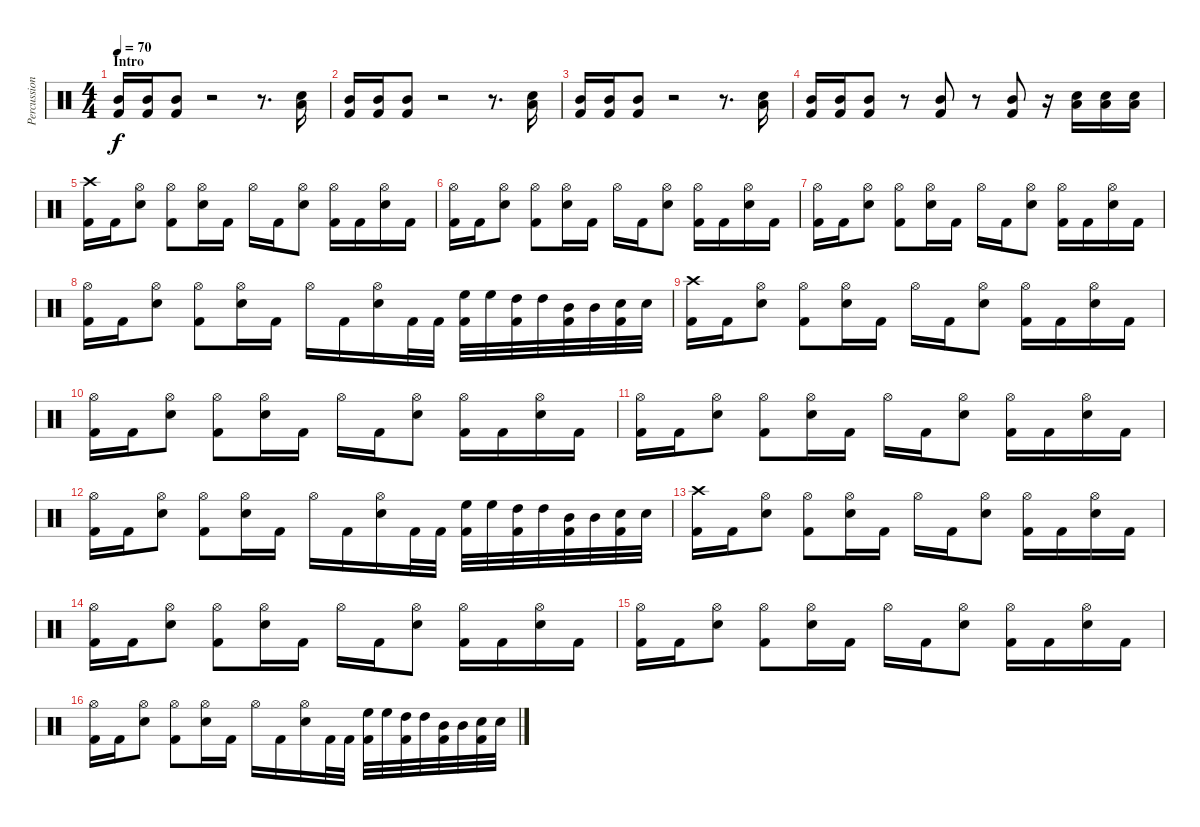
\track ("Percussion" "Percussion") {instrument percussion}
\staff {score}
\articulation defaults
\ts (4 4)
\section ("" "Intro")
\tempo 70
\clef neutral
\ks c
("Kick (hit) 2" "Mid Tom (hit)").16{dy f} ("Kick (hit) 2" "Mid Tom (hit)").16 ("Kick (hit) 2" "Mid Tom (hit)").8 r.2 r.8{d} ("Electric Snare (hit)" "Low Tom (hit)").16 |
("Kick (hit) 2" "Mid Tom (hit)").16 ("Kick (hit) 2" "Mid Tom (hit)").16 ("Kick (hit) 2" "Mid Tom (hit)").8 r.2 r.8{d} ("Electric Snare (hit)" "Low Tom (hit)").16 |
("Kick (hit) 2" "Mid Tom (hit)").16 ("Kick (hit) 2" "Mid Tom (hit)").16 ("Kick (hit) 2" "Mid Tom (hit)").8 r.2 r.8{d} ("Electric Snare (hit)" "Low Tom (hit)").16 |
("Kick (hit) 2" "Mid Tom (hit)").16 ("Kick (hit) 2" "Mid Tom (hit)").16 ("Kick (hit) 2" "Mid Tom (hit)").8 r.8 ("Kick (hit) 2" "Mid Tom (hit)").8 r.8 ("Kick (hit) 2" "Mid Tom (hit)").8 r.16 ("Electric Snare (hit)" "Low Tom (hit)").16 ("Electric Snare (hit)" "Low Tom (hit)").16 ("Electric Snare (hit)" "Low Tom (hit)").16 |
("Kick (hit) 2" "Crash high (hit)").16 "Kick (hit) 2".16 ("Electric Snare (hit)" "Hi-Hat (open)").8 ("Kick (hit) 2" "Hi-Hat (open)").8 ("Electric Snare (hit)" "Hi-Hat (open)").16 "Kick (hit) 2".16 "Hi-Hat (open)".16 "Kick (hit) 2".16 ("Electric Snare (hit)" "Hi-Hat (open)").8 ("Kick (hit) 2" "Hi-Hat (open)").16 "Kick (hit) 2".16 ("Electric Snare (hit)" "Hi-Hat (open)").16 "Kick (hit) 2".16 |
("Kick (hit) 2" "Hi-Hat (open)").16 "Kick (hit) 2".16 ("Electric Snare (hit)" "Hi-Hat (open)").8 ("Kick (hit) 2" "Hi-Hat (open)").8 ("Electric Snare (hit)" "Hi-Hat (open)").16 "Kick (hit) 2".16 "Hi-Hat (open)".16 "Kick (hit) 2".16 ("Electric Snare (hit)" "Hi-Hat (open)").8 ("Kick (hit) 2" "Hi-Hat (open)").16 "Kick (hit) 2".16 ("Electric Snare (hit)" "Hi-Hat (open)").16 "Kick (hit) 2".16 |
("Kick (hit) 2" "Hi-Hat (open)").16 "Kick (hit) 2".16 ("Electric Snare (hit)" "Hi-Hat (open)").8 ("Kick (hit) 2" "Hi-Hat (open)").8 ("Electric Snare (hit)" "Hi-Hat (open)").16 "Kick (hit) 2".16 "Hi-Hat (open)".16 "Kick (hit) 2".16 ("Electric Snare (hit)" "Hi-Hat (open)").8 ("Kick (hit) 2" "Hi-Hat (open)").16 "Kick (hit) 2".16 ("Electric Snare (hit)" "Hi-Hat (open)").16 "Kick (hit) 2".16 |
("Kick (hit) 2" "Hi-Hat (open)").16 "Kick (hit) 2".16 ("Electric Snare (hit)" "Hi-Hat (open)").8 ("Kick (hit) 2" "Hi-Hat (open)").8 ("Electric Snare (hit)" "Hi-Hat (open)").16 "Kick (hit) 2".16 "Hi-Hat (open)".16 "Kick (hit) 2".16 ("Electric Snare (hit)" "Hi-Hat (open)").16 "Kick (hit) 2".32 "Kick (hit) 2".32 ("High Floor Tom (hit)" "Kick (hit) 2").32 "High Floor Tom (hit)".32 ("High Tom (hit)" "Kick (hit) 2").32 "High Tom (hit)".32 ("Mid Tom (hit)" "Kick (hit) 2").32 "Mid Tom (hit)".32 ("Electric Snare (hit)" "Kick (hit) 2").32 "Electric Snare (hit)".32 |
("Kick (hit) 2" "Crash high (hit)").16 "Kick (hit) 2".16 ("Electric Snare (hit)" "Hi-Hat (open)").8 ("Kick (hit) 2" "Hi-Hat (open)").8 ("Electric Snare (hit)" "Hi-Hat (open)").16 "Kick (hit) 2".16 "Hi-Hat (open)".16 "Kick (hit) 2".16 ("Electric Snare (hit)" "Hi-Hat (open)").8 ("Kick (hit) 2" "Hi-Hat (open)").16 "Kick (hit) 2".16 ("Electric Snare (hit)" "Hi-Hat (open)").16 "Kick (hit) 2".16 |
("Kick (hit) 2" "Hi-Hat (open)").16 "Kick (hit) 2".16 ("Electric Snare (hit)" "Hi-Hat (open)").8 ("Kick (hit) 2" "Hi-Hat (open)").8 ("Electric Snare (hit)" "Hi-Hat (open)").16 "Kick (hit) 2".16 "Hi-Hat (open)".16 "Kick (hit) 2".16 ("Electric Snare (hit)" "Hi-Hat (open)").8 ("Kick (hit) 2" "Hi-Hat (open)").16 "Kick (hit) 2".16 ("Electric Snare (hit)" "Hi-Hat (open)").16 "Kick (hit) 2".16 |
("Kick (hit) 2" "Hi-Hat (open)").16 "Kick (hit) 2".16 ("Electric Snare (hit)" "Hi-Hat (open)").8 ("Kick (hit) 2" "Hi-Hat (open)").8 ("Electric Snare (hit)" "Hi-Hat (open)").16 "Kick (hit) 2".16 "Hi-Hat (open)".16 "Kick (hit) 2".16 ("Electric Snare (hit)" "Hi-Hat (open)").8 ("Kick (hit) 2" "Hi-Hat (open)").16 "Kick (hit) 2".16 ("Electric Snare (hit)" "Hi-Hat (open)").16 "Kick (hit) 2".16 |
("Kick (hit) 2" "Hi-Hat (open)").16 "Kick (hit) 2".16 ("Electric Snare (hit)" "Hi-Hat (open)").8 ("Kick (hit) 2" "Hi-Hat (open)").8 ("Electric Snare (hit)" "Hi-Hat (open)").16 "Kick (hit) 2".16 "Hi-Hat (open)".16 "Kick (hit) 2".16 ("Electric Snare (hit)" "Hi-Hat (open)").16 "Kick (hit) 2".32 "Kick (hit) 2".32 ("High Floor Tom (hit)" "Kick (hit) 2").32 "High Floor Tom (hit)".32 ("High Tom (hit)" "Kick (hit) 2").32 "High Tom (hit)".32 ("Mid Tom (hit)" "Kick (hit) 2").32 "Mid Tom (hit)".32 ("Electric Snare (hit)" "Kick (hit) 2").32 "Electric Snare (hit)".32 |
("Kick (hit) 2" "Crash high (hit)").16 "Kick (hit) 2".16 ("Electric Snare (hit)" "Hi-Hat (open)").8 ("Kick (hit) 2" "Hi-Hat (open)").8 ("Electric Snare (hit)" "Hi-Hat (open)").16 "Kick (hit) 2".16 "Hi-Hat (open)".16 "Kick (hit) 2".16 ("Electric Snare (hit)" "Hi-Hat (open)").8 ("Kick (hit) 2" "Hi-Hat (open)").16 "Kick (hit) 2".16 ("Electric Snare (hit)" "Hi-Hat (open)").16 "Kick (hit) 2".16 |
("Kick (hit) 2" "Hi-Hat (open)").16 "Kick (hit) 2".16 ("Electric Snare (hit)" "Hi-Hat (open)").8 ("Kick (hit) 2" "Hi-Hat (open)").8 ("Electric Snare (hit)" "Hi-Hat (open)").16 "Kick (hit) 2".16 "Hi-Hat (open)".16 "Kick (hit) 2".16 ("Electric Snare (hit)" "Hi-Hat (open)").8 ("Kick (hit) 2" "Hi-Hat (open)").16 "Kick (hit) 2".16 ("Electric Snare (hit)" "Hi-Hat (open)").16 "Kick (hit) 2".16 |
("Kick (hit) 2" "Hi-Hat (open)").16 "Kick (hit) 2".16 ("Electric Snare (hit)" "Hi-Hat (open)").8 ("Kick (hit) 2" "Hi-Hat (open)").8 ("Electric Snare (hit)" "Hi-Hat (open)").16 "Kick (hit) 2".16 "Hi-Hat (open)".16 "Kick (hit) 2".16 ("Electric Snare (hit)" "Hi-Hat (open)").8 ("Kick (hit) 2" "Hi-Hat (open)").16 "Kick (hit) 2".16 ("Electric Snare (hit)" "Hi-Hat (open)").16 "Kick (hit) 2".16 |
("Kick (hit) 2" "Hi-Hat (open)").16 "Kick (hit) 2".16 ("Electric Snare (hit)" "Hi-Hat (open)").8 ("Kick (hit) 2" "Hi-Hat (open)").8 ("Electric Snare (hit)" "Hi-Hat (open)").16 "Kick (hit) 2".16 "Hi-Hat (open)".16 "Kick (hit) 2".16 ("Electric Snare (hit)" "Hi-Hat (open)").16 "Kick (hit) 2".32 "Kick (hit) 2".32 ("High Floor Tom (hit)" "Kick (hit) 2").32 "High Floor Tom (hit)".32 ("High Tom (hit)" "Kick (hit) 2").32 "High Tom (hit)".32 ("Mid Tom (hit)" "Kick (hit) 2").32 "Mid Tom (hit)".32 ("Electric Snare (hit)" "Kick (hit) 2").32 "Electric Snare (hit)".32
